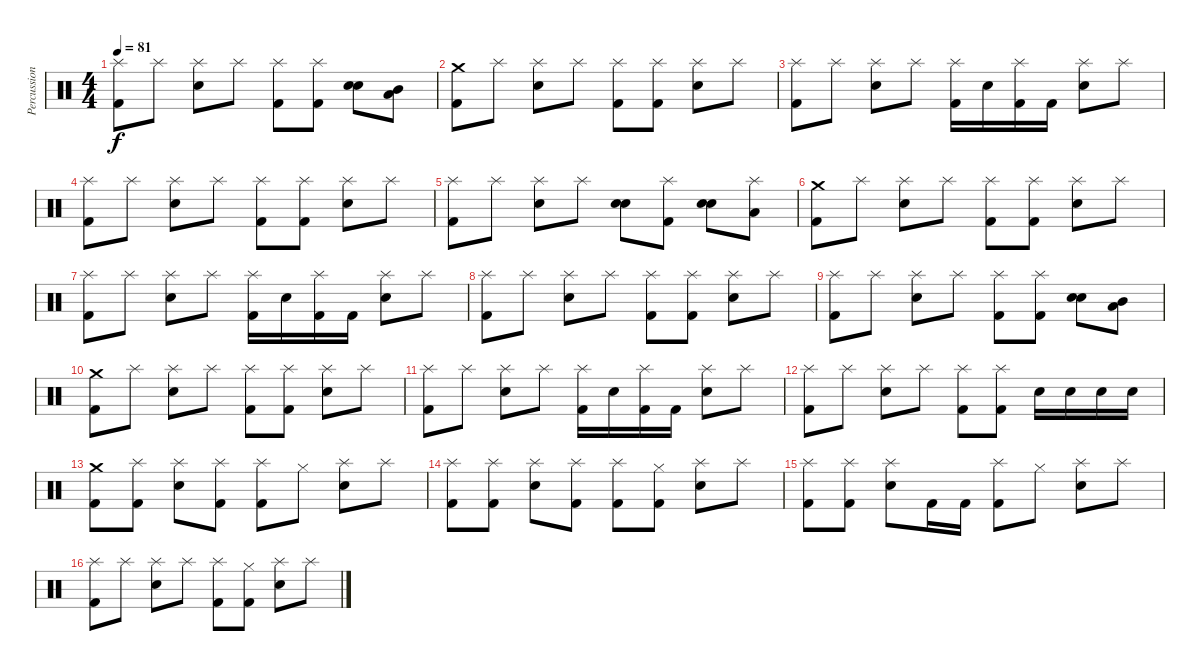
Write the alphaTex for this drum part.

\track ("Percussion" "Percussion") {instrument percussion}
\staff {score}
\articulation defaults
\ts (4 4)
\tempo 81
\clef neutral
\ks c
("Splash (hit)" "Kick (hit) 2").8{dy f} "Splash (hit)".8 ("Splash (hit)" "Snare (hit) 2").8 "Splash (hit)".8 ("Splash (hit)" "Kick (hit) 2").8 ("Splash (hit)" "Kick (hit) 2").8 ("Snare (hit) 2" "Snare (hit) 2").8 ("Low Tom (hit)" "Mid Tom (hit)").8 |
("Crash medium (hit)" "Kick (hit) 2").8 "Splash (hit)".8 ("Splash (hit)" "Snare (hit) 2").8 "Splash (hit)".8 ("Splash (hit)" "Kick (hit) 2").8 ("Splash (hit)" "Kick (hit) 2").8 ("Splash (hit)" "Snare (hit) 2").8 "Splash (hit)".8 |
("Splash (hit)" "Kick (hit) 2").8 "Splash (hit)".8 ("Splash (hit)" "Snare (hit) 2").8 "Splash (hit)".8 ("Splash (hit)" "Kick (hit) 2").16 "Snare (hit) 2".16 ("Splash (hit)" "Kick (hit) 2").16 "Kick (hit) 2".16 ("Splash (hit)" "Snare (hit) 2").8 "Splash (hit)".8 |
("Splash (hit)" "Kick (hit) 2").8 "Splash (hit)".8 ("Splash (hit)" "Snare (hit) 2").8 "Splash (hit)".8 ("Splash (hit)" "Kick (hit) 2").8 ("Splash (hit)" "Kick (hit) 2").8 ("Splash (hit)" "Snare (hit) 2").8 "Splash (hit)".8 |
("Splash (hit)" "Kick (hit) 2").8 "Splash (hit)".8 ("Splash (hit)" "Snare (hit) 2").8 "Splash (hit)".8 ("Snare (hit) 2" "Snare (hit) 2").8 ("Splash (hit)" "Kick (hit) 2").8 ("Snare (hit) 2" "Snare (hit) 2").8 ("Splash (hit)" "Low Tom (hit)").8 |
("Crash medium (hit)" "Kick (hit) 2").8 "Splash (hit)".8 ("Splash (hit)" "Snare (hit) 2").8 "Splash (hit)".8 ("Splash (hit)" "Kick (hit) 2").8 ("Splash (hit)" "Kick (hit) 2").8 ("Splash (hit)" "Snare (hit) 2").8 "Splash (hit)".8 |
("Splash (hit)" "Kick (hit) 2").8 "Splash (hit)".8 ("Splash (hit)" "Snare (hit) 2").8 "Splash (hit)".8 ("Splash (hit)" "Kick (hit) 2").16 "Snare (hit) 2".16 ("Splash (hit)" "Kick (hit) 2").16 "Kick (hit) 2".16 ("Splash (hit)" "Snare (hit) 2").8 "Splash (hit)".8 |
("Splash (hit)" "Kick (hit) 2").8 "Splash (hit)".8 ("Splash (hit)" "Snare (hit) 2").8 "Splash (hit)".8 ("Splash (hit)" "Kick (hit) 2").8 ("Splash (hit)" "Kick (hit) 2").8 ("Splash (hit)" "Snare (hit) 2").8 "Splash (hit)".8 |
("Splash (hit)" "Kick (hit) 2").8 "Splash (hit)".8 ("Splash (hit)" "Snare (hit) 2").8 "Splash (hit)".8 ("Splash (hit)" "Kick (hit) 2").8 ("Splash (hit)" "Kick (hit) 2").8 ("Snare (hit) 2" "Snare (hit) 2").8 ("Low Tom (hit)" "Mid Tom (hit)").8 |
("Crash medium (hit)" "Kick (hit) 2").8 "Splash (hit)".8 ("Splash (hit)" "Snare (hit) 2").8 "Splash (hit)".8 ("Splash (hit)" "Kick (hit) 2").8 ("Splash (hit)" "Kick (hit) 2").8 ("Splash (hit)" "Snare (hit) 2").8 "Splash (hit)".8 |
("Splash (hit)" "Kick (hit) 2").8 "Splash (hit)".8 ("Splash (hit)" "Snare (hit) 2").8 "Splash (hit)".8 ("Splash (hit)" "Kick (hit) 2").16 "Snare (hit) 2".16 ("Splash (hit)" "Kick (hit) 2").16 "Kick (hit) 2".16 ("Splash (hit)" "Snare (hit) 2").8 "Splash (hit)".8 |
("Splash (hit)" "Kick (hit) 2").8 "Splash (hit)".8 ("Splash (hit)" "Snare (hit) 2").8 "Splash (hit)".8 ("Splash (hit)" "Kick (hit) 2").8 ("Splash (hit)" "Kick (hit) 2").8 "Snare (hit) 2".16 "Snare (hit) 2".16 "Snare (hit) 2".16 "Snare (hit) 2".16 |
("Crash medium (hit)" "Kick (hit) 2").8 ("Splash (hit)" "Kick (hit) 2").8 ("Splash (hit)" "Snare (hit) 2").8 ("Splash (hit)" "Kick (hit) 2").8 ("Splash (hit)" "Kick (hit) 2").8 "Hi-Hat (closed)".8 ("Splash (hit)" "Snare (hit) 2").8 "Splash (hit)".8 |
("Splash (hit)" "Kick (hit) 2").8 ("Splash (hit)" "Kick (hit) 2").8 ("Splash (hit)" "Snare (hit) 2").8 ("Splash (hit)" "Kick (hit) 2").8 ("Splash (hit)" "Kick (hit) 2").8 ("Hi-Hat (closed)" "Kick (hit) 2").8 ("Splash (hit)" "Snare (hit) 2").8 "Splash (hit)".8 |
("Splash (hit)" "Kick (hit) 2").8 ("Splash (hit)" "Kick (hit) 2").8 ("Splash (hit)" "Snare (hit) 2").8 "Kick (hit) 2".16 "Kick (hit) 2".16 ("Splash (hit)" "Kick (hit) 2").8 "Hi-Hat (closed)".8 ("Splash (hit)" "Snare (hit) 2").8 "Splash (hit)".8 |
("Splash (hit)" "Kick (hit) 2").8 "Splash (hit)".8 ("Splash (hit)" "Snare (hit) 2").8 "Splash (hit)".8 ("Splash (hit)" "Kick (hit) 2").8 ("Hi-Hat (closed)" "Kick (hit) 2").8 ("Splash (hit)" "Snare (hit) 2").8 "Splash (hit)".8
